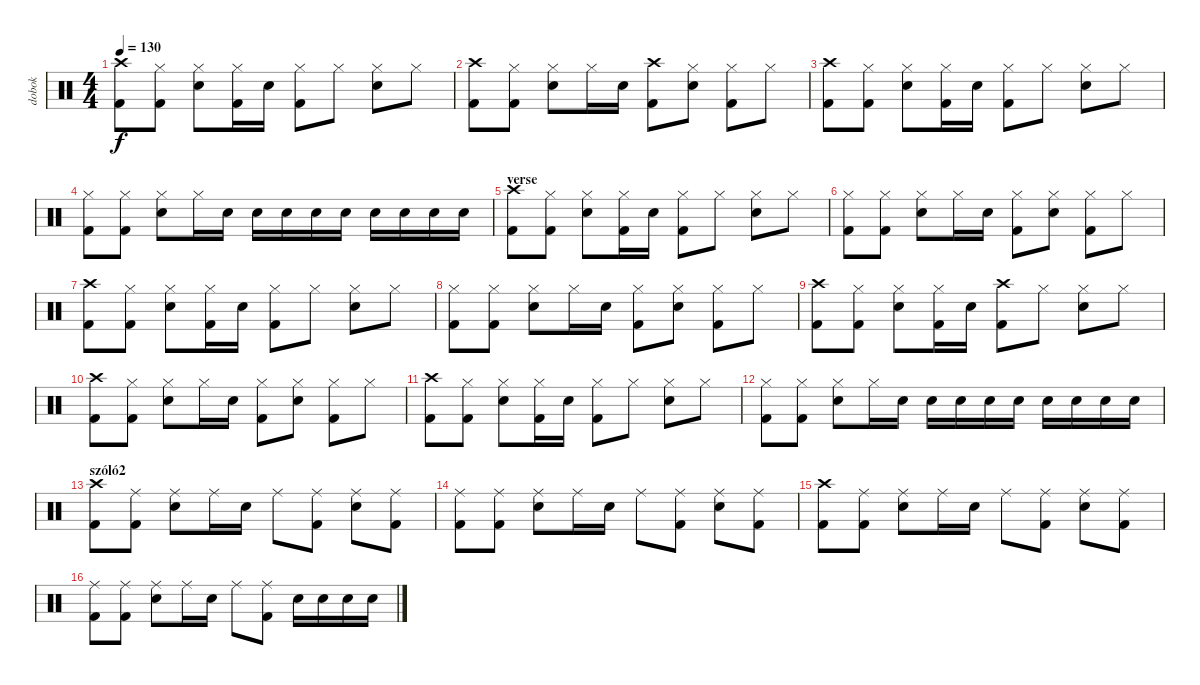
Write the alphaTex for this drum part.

\track ("dobok" "dobok") {instrument percussion}
\staff {score}
\articulation defaults
\ts (4 4)
\tempo 130
\clef neutral
\ks c
("Crash high (hit)" "Kick (hit) 2").8{dy f} ("Hi-Hat (closed)" "Kick (hit) 2").8 ("Hi-Hat (closed)" "Snare (hit) 2").8 ("Hi-Hat (closed)" "Kick (hit) 2").16 "Snare (hit) 2".16 ("Hi-Hat (closed)" "Kick (hit) 2").8 "Hi-Hat (closed)".8 ("Hi-Hat (closed)" "Snare (hit) 2").8 "Hi-Hat (closed)".8 |
("Crash high (hit)" "Kick (hit) 2").8 ("Hi-Hat (closed)" "Kick (hit) 2").8 ("Hi-Hat (closed)" "Snare (hit) 2").8 "Hi-Hat (closed)".16 "Snare (hit) 2".16 ("Crash high (hit)" "Kick (hit) 2").8 ("Hi-Hat (closed)" "Snare (hit) 2").8 ("Hi-Hat (closed)" "Kick (hit) 2").8 "Hi-Hat (closed)".8 |
("Crash high (hit)" "Kick (hit) 2").8 ("Hi-Hat (closed)" "Kick (hit) 2").8 ("Hi-Hat (closed)" "Snare (hit) 2").8 ("Hi-Hat (closed)" "Kick (hit) 2").16 "Snare (hit) 2".16 ("Hi-Hat (closed)" "Kick (hit) 2").8 "Hi-Hat (closed)".8 ("Hi-Hat (closed)" "Snare (hit) 2").8 "Hi-Hat (closed)".8 |
("Hi-Hat (closed)" "Kick (hit) 2").8 ("Hi-Hat (closed)" "Kick (hit) 2").8 ("Hi-Hat (closed)" "Snare (hit) 2").8 "Hi-Hat (closed)".16 "Snare (hit) 2".16 "Snare (hit) 2".16 "Snare (hit) 2".16 "Snare (hit) 2".16 "Snare (hit) 2".16 "Snare (hit) 2".16 "Snare (hit) 2".16 "Snare (hit) 2".16 "Snare (hit) 2".16 |
\section ("" "verse")
("Crash high (hit)" "Kick (hit) 2").8 ("Hi-Hat (closed)" "Kick (hit) 2").8 ("Hi-Hat (closed)" "Snare (hit) 2").8 ("Hi-Hat (closed)" "Kick (hit) 2").16 "Snare (hit) 2".16 ("Hi-Hat (closed)" "Kick (hit) 2").8 "Hi-Hat (closed)".8 ("Hi-Hat (closed)" "Snare (hit) 2").8 "Hi-Hat (closed)".8 |
("Hi-Hat (closed)" "Kick (hit) 2").8 ("Hi-Hat (closed)" "Kick (hit) 2").8 ("Hi-Hat (closed)" "Snare (hit) 2").8 "Hi-Hat (closed)".16 "Snare (hit) 2".16 ("Hi-Hat (closed)" "Kick (hit) 2").8 ("Hi-Hat (closed)" "Snare (hit) 2").8 ("Hi-Hat (closed)" "Kick (hit) 2").8 "Hi-Hat (closed)".8 |
("Crash high (hit)" "Kick (hit) 2").8 ("Hi-Hat (closed)" "Kick (hit) 2").8 ("Hi-Hat (closed)" "Snare (hit) 2").8 ("Hi-Hat (closed)" "Kick (hit) 2").16 "Snare (hit) 2".16 ("Hi-Hat (closed)" "Kick (hit) 2").8 "Hi-Hat (closed)".8 ("Hi-Hat (closed)" "Snare (hit) 2").8 "Hi-Hat (closed)".8 |
("Hi-Hat (closed)" "Kick (hit) 2").8 ("Hi-Hat (closed)" "Kick (hit) 2").8 ("Hi-Hat (closed)" "Snare (hit) 2").8 "Hi-Hat (closed)".16 "Snare (hit) 2".16 ("Hi-Hat (closed)" "Kick (hit) 2").8 ("Hi-Hat (closed)" "Snare (hit) 2").8 ("Hi-Hat (closed)" "Kick (hit) 2").8 "Hi-Hat (closed)".8 |
("Crash high (hit)" "Kick (hit) 2").8 ("Hi-Hat (closed)" "Kick (hit) 2").8 ("Hi-Hat (closed)" "Snare (hit) 2").8 ("Hi-Hat (closed)" "Kick (hit) 2").16 "Snare (hit) 2".16 ("Crash high (hit)" "Kick (hit) 2").8 "Hi-Hat (closed)".8 ("Hi-Hat (closed)" "Snare (hit) 2").8 "Hi-Hat (closed)".8 |
("Crash high (hit)" "Kick (hit) 2").8 ("Hi-Hat (closed)" "Kick (hit) 2").8 ("Hi-Hat (closed)" "Snare (hit) 2").8 "Hi-Hat (closed)".16 "Snare (hit) 2".16 ("Hi-Hat (closed)" "Kick (hit) 2").8 ("Hi-Hat (closed)" "Snare (hit) 2").8 ("Hi-Hat (closed)" "Kick (hit) 2").8 "Hi-Hat (closed)".8 |
("Crash high (hit)" "Kick (hit) 2").8 ("Hi-Hat (closed)" "Kick (hit) 2").8 ("Hi-Hat (closed)" "Snare (hit) 2").8 ("Hi-Hat (closed)" "Kick (hit) 2").16 "Snare (hit) 2".16 ("Hi-Hat (closed)" "Kick (hit) 2").8 "Hi-Hat (closed)".8 ("Hi-Hat (closed)" "Snare (hit) 2").8 "Hi-Hat (closed)".8 |
("Hi-Hat (closed)" "Kick (hit) 2").8 ("Hi-Hat (closed)" "Kick (hit) 2").8 ("Hi-Hat (closed)" "Snare (hit) 2").8 "Hi-Hat (closed)".16 "Snare (hit) 2".16 "Snare (hit) 2".16 "Snare (hit) 2".16 "Snare (hit) 2".16 "Snare (hit) 2".16 "Snare (hit) 2".16 "Snare (hit) 2".16 "Snare (hit) 2".16 "Snare (hit) 2".16 |
\section ("" "szóló2")
("Crash high (hit)" "Kick (hit) 2").8 ("Ride (middle)" "Kick (hit) 2").8 ("Ride (middle)" "Snare (hit) 2").8 "Ride (middle)".16 "Snare (hit) 2".16 "Ride (middle)".8 ("Ride (middle)" "Kick (hit) 2").8 ("Ride (middle)" "Snare (hit) 2").8 ("Ride (middle)" "Kick (hit) 2").8 |
("Ride (middle)" "Kick (hit) 2").8 ("Ride (middle)" "Kick (hit) 2").8 ("Ride (middle)" "Snare (hit) 2").8 "Ride (middle)".16 "Snare (hit) 2".16 "Ride (middle)".8 ("Ride (middle)" "Kick (hit) 2").8 ("Ride (middle)" "Snare (hit) 2").8 ("Ride (middle)" "Kick (hit) 2").8 |
("Crash high (hit)" "Kick (hit) 2").8 ("Ride (middle)" "Kick (hit) 2").8 ("Ride (middle)" "Snare (hit) 2").8 "Ride (middle)".16 "Snare (hit) 2".16 "Ride (middle)".8 ("Ride (middle)" "Kick (hit) 2").8 ("Ride (middle)" "Snare (hit) 2").8 ("Ride (middle)" "Kick (hit) 2").8 |
("Ride (middle)" "Kick (hit) 2").8 ("Ride (middle)" "Kick (hit) 2").8 ("Ride (middle)" "Snare (hit) 2").8 "Ride (middle)".16 "Snare (hit) 2".16 "Ride (middle)".8 ("Ride (middle)" "Kick (hit) 2").8 "Snare (hit) 2".16 "Snare (hit) 2".16 "Snare (hit) 2".16 "Snare (hit) 2".16
